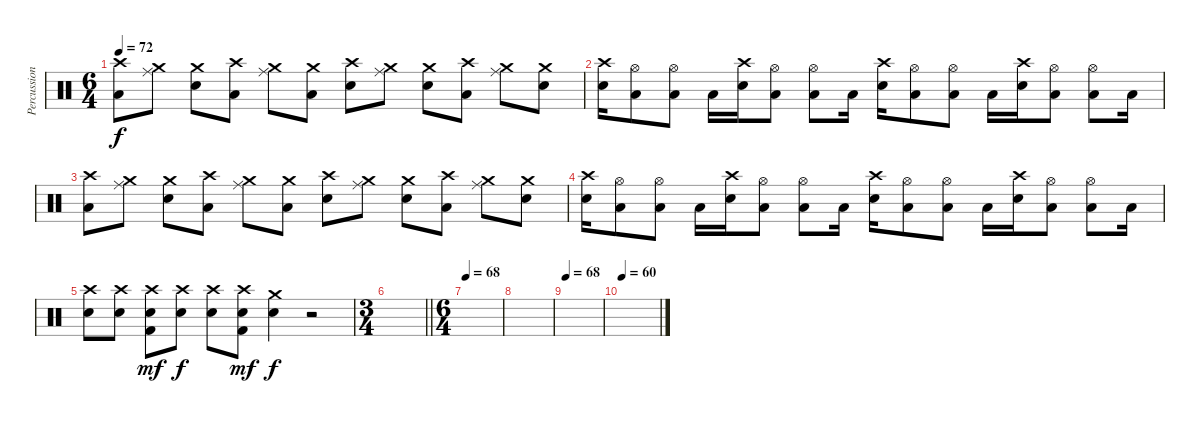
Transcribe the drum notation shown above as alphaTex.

\track ("Percussion" "Percussion") {instrument percussion}
\staff {score}
\articulation defaults
\ts (6 4)
\tempo 72
\clef neutral
\ks c
("Crash high (hit)" "Low Floor Tom (hit)").8{dy f} ("Crash medium (hit)" "Ride (middle)").8 ("Crash medium (hit)" "Snare (hit) 2").8 ("Crash high (hit)" "Low Floor Tom (hit)").8 ("Crash medium (hit)" "Ride (middle)").8 ("Crash medium (hit)" "Low Floor Tom (hit)").8 ("Crash high (hit)" "Snare (hit) 2").8 ("Crash medium (hit)" "Ride (middle)").8 ("Crash medium (hit)" "Snare (hit) 2").8 ("Crash high (hit)" "Low Floor Tom (hit)").8 ("Crash medium (hit)" "Ride (middle)").8 ("Crash medium (hit)" "Snare (hit) 2").8 |
("Crash high (hit)" "Electric Snare (hit)").16 ("Hi-Hat (open)" "Low Floor Tom (hit)").8 ("Hi-Hat (open)" "Low Floor Tom (hit)").8 "Low Floor Tom (hit)".16 ("Crash high (hit)" "Electric Snare (hit)").16 ("Hi-Hat (open)" "Low Floor Tom (hit)").8 ("Hi-Hat (open)" "Low Floor Tom (hit)").8 "Low Floor Tom (hit)".16 ("Crash high (hit)" "Electric Snare (hit)").16 ("Hi-Hat (open)" "Low Floor Tom (hit)").8 ("Hi-Hat (open)" "Low Floor Tom (hit)").8 "Low Floor Tom (hit)".16 ("Crash high (hit)" "Electric Snare (hit)").16 ("Hi-Hat (open)" "Low Floor Tom (hit)").8 ("Hi-Hat (open)" "Low Floor Tom (hit)").8 "Low Floor Tom (hit)".16 |
("Crash high (hit)" "Low Floor Tom (hit)").8 ("Crash medium (hit)" "Ride (middle)").8 ("Crash medium (hit)" "Snare (hit) 2").8 ("Crash high (hit)" "Low Floor Tom (hit)").8 ("Crash medium (hit)" "Ride (middle)").8 ("Crash medium (hit)" "Low Floor Tom (hit)").8 ("Crash high (hit)" "Snare (hit) 2").8 ("Crash medium (hit)" "Ride (middle)").8 ("Crash medium (hit)" "Snare (hit) 2").8 ("Crash high (hit)" "Low Floor Tom (hit)").8 ("Crash medium (hit)" "Ride (middle)").8 ("Crash medium (hit)" "Snare (hit) 2").8 |
("Crash high (hit)" "Electric Snare (hit)").16 ("Hi-Hat (open)" "Low Floor Tom (hit)").8 ("Hi-Hat (open)" "Low Floor Tom (hit)").8 "Low Floor Tom (hit)".16 ("Crash high (hit)" "Electric Snare (hit)").16 ("Hi-Hat (open)" "Low Floor Tom (hit)").8 ("Hi-Hat (open)" "Low Floor Tom (hit)").8 "Low Floor Tom (hit)".16 ("Crash high (hit)" "Electric Snare (hit)").16 ("Hi-Hat (open)" "Low Floor Tom (hit)").8 ("Hi-Hat (open)" "Low Floor Tom (hit)").8 "Low Floor Tom (hit)".16 ("Crash high (hit)" "Electric Snare (hit)").16 ("Hi-Hat (open)" "Low Floor Tom (hit)").8 ("Hi-Hat (open)" "Low Floor Tom (hit)").8 "Low Floor Tom (hit)".16 |
("Crash high (hit)" "Snare (hit) 2").8 ("Crash high (hit)" "Snare (hit) 2").8 ("Crash high (hit)" "Snare (hit) 2" "Kick (hit) 2").8{dy mf} ("Crash high (hit)" "Snare (hit) 2").8{dy f} ("Crash high (hit)" "Snare (hit) 2").8 ("Crash high (hit)" "Snare (hit) 2" "Kick (hit) 2").8{dy mf} ("Crash medium (hit)" "Snare (hit) 2").4{dy f} r.2 |
\ts (3 4)
\barLineRight lightlight
|
\ts (6 4)
\section ("" "")
\tempo 68
|
|
\tempo 68
|
\tempo 60
